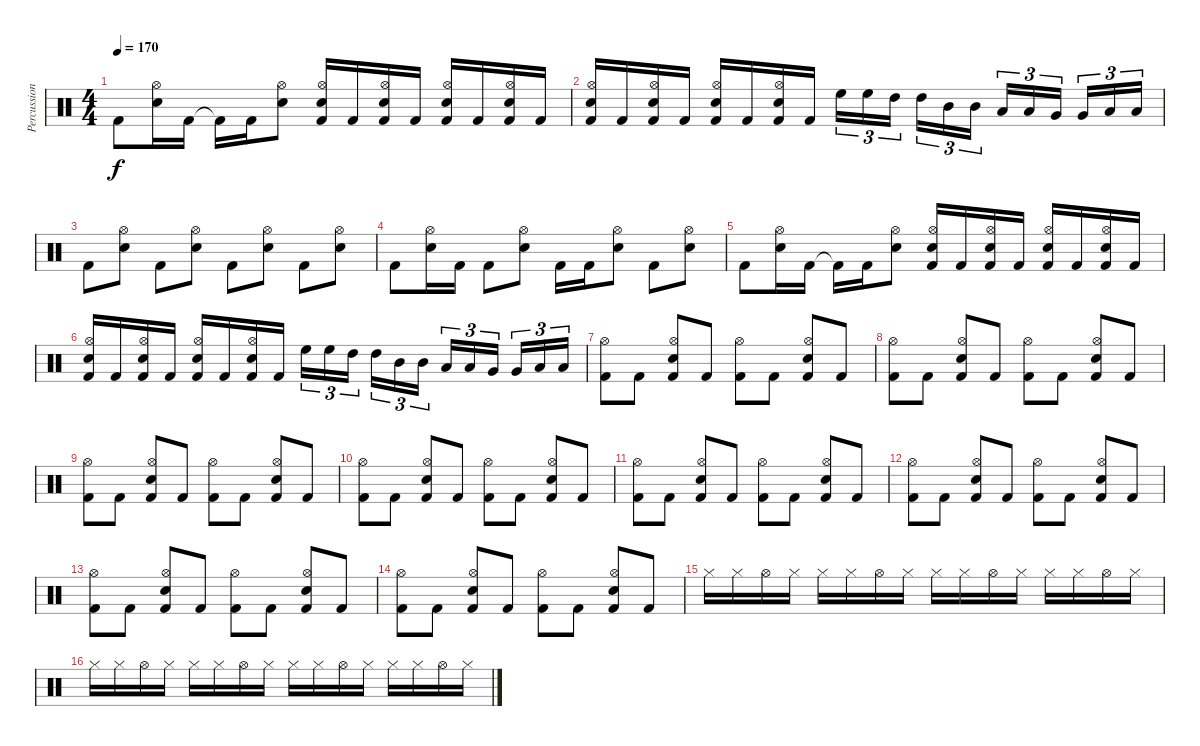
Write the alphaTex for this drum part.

\track ("Percussions" "Percussion") {instrument percussion}
\staff {score}
\articulation defaults
\ts (4 4)
\tempo 170
\clef neutral
\ks c "Kick (hit) 2".8{dy f}
("Hi-Hat (open)" "Snare (hit) 2").16 "Kick (hit) 2".16 "Kick (hit) 2"{t}.16 "Kick (hit) 2".16 ("Hi-Hat (open)" "Snare (hit) 2").8 ("Hi-Hat (open)" "Electric Snare (hit)" "Kick (hit) 2").16 "Kick (hit) 2".16 ("Hi-Hat (open)" "Electric Snare (hit)" "Kick (hit) 2").16 "Kick (hit) 2".16 ("Hi-Hat (open)" "Electric Snare (hit)" "Kick (hit) 2").16 "Kick (hit) 2".16 ("Hi-Hat (open)" "Electric Snare (hit)" "Kick (hit) 2").16 "Kick (hit) 2".16 |
("Hi-Hat (open)" "Snare (hit) 2" "Kick (hit) 2").16 "Kick (hit) 2".16 ("Hi-Hat (open)" "Snare (hit) 2" "Kick (hit) 2").16 "Kick (hit) 2".16 ("Hi-Hat (open)" "Snare (hit) 2" "Kick (hit) 2").16 "Kick (hit) 2".16 ("Hi-Hat (open)" "Snare (hit) 2" "Kick (hit) 2").16 "Kick (hit) 2".16 "High Floor Tom (hit)".16{tu (3 2)} "High Floor Tom (hit)".16{tu (3 2)} "High Tom (hit)".16{tu (3 2)} "High Tom (hit)".16{tu (3 2)} "Mid Tom (hit)".16{tu (3 2)} "Mid Tom (hit)".16{tu (3 2)} "Low Tom (hit)".16{tu (3 2)} "Low Tom (hit)".16{tu (3 2)} "Very Low Tom (hit)".16{tu (3 2)} "Very Low Tom (hit)".16{tu (3 2)} "Low Floor Tom (hit)".16{tu (3 2)} "Low Floor Tom (hit)".16{tu (3 2)} |
"Kick (hit) 2".8 ("Hi-Hat (open)" "Snare (hit) 2").8 "Kick (hit) 2".8 ("Hi-Hat (open)" "Snare (hit) 2").8 "Kick (hit) 2".8 ("Hi-Hat (open)" "Snare (hit) 2").8 "Kick (hit) 2".8 ("Hi-Hat (open)" "Snare (hit) 2").8 |
"Kick (hit) 2".8 ("Hi-Hat (open)" "Snare (hit) 2").16 "Kick (hit) 2".16 "Kick (hit) 2".8 ("Hi-Hat (open)" "Snare (hit) 2").8 "Kick (hit) 2".16 "Kick (hit) 2".16 ("Hi-Hat (open)" "Snare (hit) 2").8 "Kick (hit) 2".8 ("Hi-Hat (open)" "Snare (hit) 2").8 |
"Kick (hit) 2".8 ("Hi-Hat (open)" "Snare (hit) 2").16 "Kick (hit) 2".16 "Kick (hit) 2"{t}.16 "Kick (hit) 2".16 ("Hi-Hat (open)" "Snare (hit) 2").8 ("Hi-Hat (open)" "Electric Snare (hit)" "Kick (hit) 2").16 "Kick (hit) 2".16 ("Hi-Hat (open)" "Electric Snare (hit)" "Kick (hit) 2").16 "Kick (hit) 2".16 ("Hi-Hat (open)" "Electric Snare (hit)" "Kick (hit) 2").16 "Kick (hit) 2".16 ("Hi-Hat (open)" "Electric Snare (hit)" "Kick (hit) 2").16 "Kick (hit) 2".16 |
("Hi-Hat (open)" "Snare (hit) 2" "Kick (hit) 2").16 "Kick (hit) 2".16 ("Hi-Hat (open)" "Snare (hit) 2" "Kick (hit) 2").16 "Kick (hit) 2".16 ("Hi-Hat (open)" "Snare (hit) 2" "Kick (hit) 2").16 "Kick (hit) 2".16 ("Hi-Hat (open)" "Snare (hit) 2" "Kick (hit) 2").16 "Kick (hit) 2".16 "High Floor Tom (hit)".16{tu (3 2)} "High Floor Tom (hit)".16{tu (3 2)} "High Tom (hit)".16{tu (3 2)} "High Tom (hit)".16{tu (3 2)} "Mid Tom (hit)".16{tu (3 2)} "Mid Tom (hit)".16{tu (3 2)} "Low Tom (hit)".16{tu (3 2)} "Low Tom (hit)".16{tu (3 2)} "Very Low Tom (hit)".16{tu (3 2)} "Very Low Tom (hit)".16{tu (3 2)} "Low Floor Tom (hit)".16{tu (3 2)} "Low Floor Tom (hit)".16{tu (3 2)} |
("Hi-Hat (open)" "Kick (hit) 2").8 "Kick (hit) 2".8 ("Hi-Hat (open)" "Snare (hit) 2" "Kick (hit) 2").8 "Kick (hit) 2".8 ("Hi-Hat (open)" "Kick (hit) 2").8 "Kick (hit) 2".8 ("Hi-Hat (open)" "Snare (hit) 2" "Kick (hit) 2").8 "Kick (hit) 2".8 |
("Hi-Hat (open)" "Kick (hit) 2").8 "Kick (hit) 2".8 ("Hi-Hat (open)" "Snare (hit) 2" "Kick (hit) 2").8 "Kick (hit) 2".8 ("Hi-Hat (open)" "Kick (hit) 2").8 "Kick (hit) 2".8 ("Hi-Hat (open)" "Snare (hit) 2" "Kick (hit) 2").8 "Kick (hit) 2".8 |
("Hi-Hat (open)" "Kick (hit) 2").8 "Kick (hit) 2".8 ("Hi-Hat (open)" "Snare (hit) 2" "Kick (hit) 2").8 "Kick (hit) 2".8 ("Hi-Hat (open)" "Kick (hit) 2").8 "Kick (hit) 2".8 ("Hi-Hat (open)" "Snare (hit) 2" "Kick (hit) 2").8 "Kick (hit) 2".8 |
("Hi-Hat (open)" "Kick (hit) 2").8 "Kick (hit) 2".8 ("Hi-Hat (open)" "Snare (hit) 2" "Kick (hit) 2").8 "Kick (hit) 2".8 ("Hi-Hat (open)" "Kick (hit) 2").8 "Kick (hit) 2".8 ("Hi-Hat (open)" "Snare (hit) 2" "Kick (hit) 2").8 "Kick (hit) 2".8 |
("Hi-Hat (open)" "Kick (hit) 2").8 "Kick (hit) 2".8 ("Hi-Hat (open)" "Snare (hit) 2" "Kick (hit) 2").8 "Kick (hit) 2".8 ("Hi-Hat (open)" "Kick (hit) 2").8 "Kick (hit) 2".8 ("Hi-Hat (open)" "Snare (hit) 2" "Kick (hit) 2").8 "Kick (hit) 2".8 |
("Hi-Hat (open)" "Kick (hit) 2").8 "Kick (hit) 2".8 ("Hi-Hat (open)" "Snare (hit) 2" "Kick (hit) 2").8 "Kick (hit) 2".8 ("Hi-Hat (open)" "Kick (hit) 2").8 "Kick (hit) 2".8 ("Hi-Hat (open)" "Snare (hit) 2" "Kick (hit) 2").8 "Kick (hit) 2".8 |
("Hi-Hat (open)" "Kick (hit) 2").8 "Kick (hit) 2".8 ("Hi-Hat (open)" "Snare (hit) 2" "Kick (hit) 2").8 "Kick (hit) 2".8 ("Hi-Hat (open)" "Kick (hit) 2").8 "Kick (hit) 2".8 ("Hi-Hat (open)" "Snare (hit) 2" "Kick (hit) 2").8 "Kick (hit) 2".8 |
("Hi-Hat (open)" "Kick (hit) 2").8 "Kick (hit) 2".8 ("Hi-Hat (open)" "Snare (hit) 2" "Kick (hit) 2").8 "Kick (hit) 2".8 ("Hi-Hat (open)" "Kick (hit) 2").8 "Kick (hit) 2".8 ("Hi-Hat (open)" "Snare (hit) 2" "Kick (hit) 2").8 "Kick (hit) 2".8 |
"Hi-Hat (closed)".16 "Hi-Hat (closed)".16 "Hi-Hat (open)".16 "Hi-Hat (closed)".16 "Hi-Hat (closed)".16 "Hi-Hat (closed)".16 "Hi-Hat (open)".16 "Hi-Hat (closed)".16 "Hi-Hat (closed)".16 "Hi-Hat (closed)".16 "Hi-Hat (open)".16 "Hi-Hat (closed)".16 "Hi-Hat (closed)".16 "Hi-Hat (closed)".16 "Hi-Hat (open)".16 "Hi-Hat (closed)".16 |
"Hi-Hat (closed)".16 "Hi-Hat (closed)".16 "Hi-Hat (open)".16 "Hi-Hat (closed)".16 "Hi-Hat (closed)".16 "Hi-Hat (closed)".16 "Hi-Hat (open)".16 "Hi-Hat (closed)".16 "Hi-Hat (closed)".16 "Hi-Hat (closed)".16 "Hi-Hat (open)".16 "Hi-Hat (closed)".16 "Hi-Hat (closed)".16 "Hi-Hat (closed)".16 "Hi-Hat (open)".16 "Hi-Hat (closed)".16
